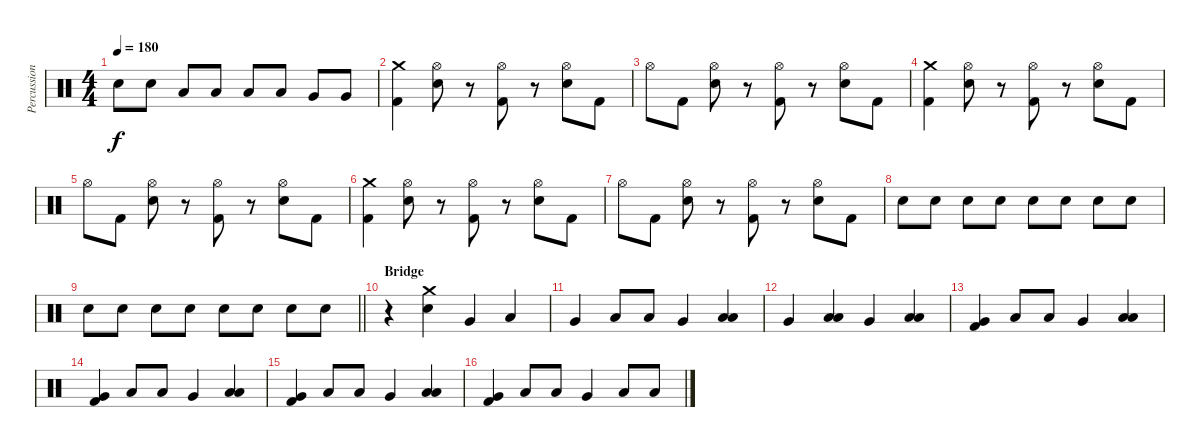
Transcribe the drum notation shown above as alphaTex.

\track ("Percussion" "Percussion") {instrument percussion}
\staff {score}
\articulation defaults
\ts (4 4)
\tempo 180
\clef neutral
\ks c "Snare (hit) 2".8{dy f} "Snare (hit) 2".8 "Low Tom (hit)".8 "Low Tom (hit)".8 "Low Tom (hit)".8 "Low Tom (hit)".8 "Very Low Tom (hit)".8 "Very Low Tom (hit)".8
|
("Crash medium (hit)" "Kick (hit) 2").4 ("Hi-Hat (open)" "Snare (hit) 2").8 r.8 ("Hi-Hat (open)" "Kick (hit) 2").8 r.8 ("Hi-Hat (open)" "Snare (hit) 2").8 "Kick (hit) 2".8 |
"Hi-Hat (open)".8 "Kick (hit) 2".8 ("Hi-Hat (open)" "Snare (hit) 2").8 r.8 ("Hi-Hat (open)" "Kick (hit) 2").8 r.8 ("Hi-Hat (open)" "Snare (hit) 2").8 "Kick (hit) 2".8 |
("Crash medium (hit)" "Kick (hit) 2").4 ("Hi-Hat (open)" "Snare (hit) 2").8 r.8 ("Hi-Hat (open)" "Kick (hit) 2").8 r.8 ("Hi-Hat (open)" "Snare (hit) 2").8 "Kick (hit) 2".8 |
"Hi-Hat (open)".8 "Kick (hit) 2".8 ("Hi-Hat (open)" "Snare (hit) 2").8 r.8 ("Hi-Hat (open)" "Kick (hit) 2").8 r.8 ("Hi-Hat (open)" "Snare (hit) 2").8 "Kick (hit) 2".8 |
("Crash medium (hit)" "Kick (hit) 2").4 ("Hi-Hat (open)" "Snare (hit) 2").8 r.8 ("Hi-Hat (open)" "Kick (hit) 2").8 r.8 ("Hi-Hat (open)" "Snare (hit) 2").8 "Kick (hit) 2".8 |
"Hi-Hat (open)".8 "Kick (hit) 2".8 ("Hi-Hat (open)" "Snare (hit) 2").8 r.8 ("Hi-Hat (open)" "Kick (hit) 2").8 r.8 ("Hi-Hat (open)" "Snare (hit) 2").8 "Kick (hit) 2".8 |
"Snare (hit) 2".8{volume 9} "Snare (hit) 2".8{volume 13} "Snare (hit) 2".8 "Snare (hit) 2".8 "Snare (hit) 2".8 "Snare (hit) 2".8 "Snare (hit) 2".8 "Snare (hit) 2".8 |
\barLineRight lightlight "Snare (hit) 2".8 "Snare (hit) 2".8 "Snare (hit) 2".8 "Snare (hit) 2".8 "Snare (hit) 2".8 "Snare (hit) 2".8 "Snare (hit) 2".8 "Snare (hit) 2".8
|
\section ("" "Bridge")
r.4 ("Crash medium (hit)" "Snare (hit) 2").4 "Very Low Tom (hit)".4 "Low Tom (hit)".4 |
"Very Low Tom (hit)".4 "Low Tom (hit)".8 "Low Tom (hit)".8 "Very Low Tom (hit)".4 ("Low Floor Tom (hit)" "Low Floor Tom (hit)").4 |
"Very Low Tom (hit)".4 ("Low Floor Tom (hit)" "Low Floor Tom (hit)").4 "Very Low Tom (hit)".4 ("Low Floor Tom (hit)" "Low Floor Tom (hit)").4 |
("Very Low Tom (hit)" "Kick (hit) 2").4 "Low Tom (hit)".8 "Low Tom (hit)".8 "Very Low Tom (hit)".4 ("Low Floor Tom (hit)" "Low Floor Tom (hit)").4 |
("Very Low Tom (hit)" "Kick (hit) 2").4 "Low Tom (hit)".8 "Low Tom (hit)".8 "Very Low Tom (hit)".4 ("Low Floor Tom (hit)" "Low Floor Tom (hit)").4 |
("Very Low Tom (hit)" "Kick (hit) 2").4 "Low Tom (hit)".8 "Low Tom (hit)".8 "Very Low Tom (hit)".4 ("Low Floor Tom (hit)" "Low Floor Tom (hit)").4 |
("Very Low Tom (hit)" "Kick (hit) 2").4 "Low Tom (hit)".8 "Low Tom (hit)".8 "Very Low Tom (hit)".4 "Low Floor Tom (hit)".8 "Low Floor Tom (hit)".8
